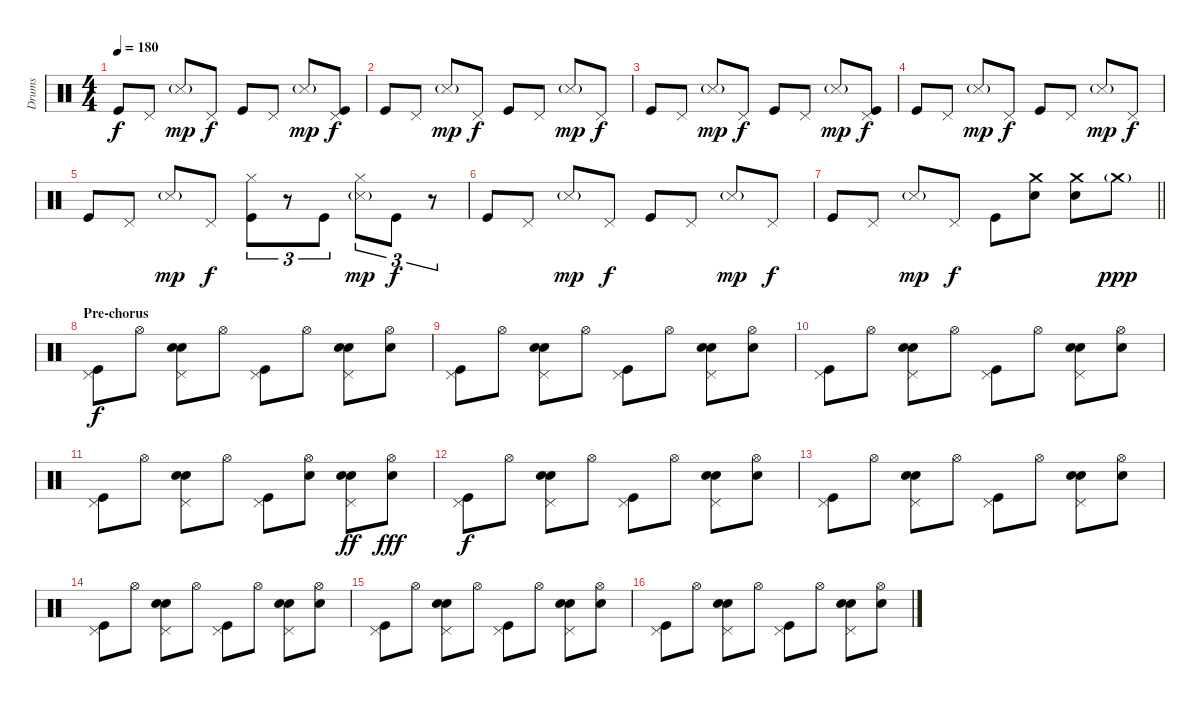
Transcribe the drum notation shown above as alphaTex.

\track ("Drums" "Drums") {instrument percussion}
\staff {score}
\articulation defaults
\ts (4 4)
\tempo 180
\clef neutral
\ks c "Kick (hit)".8{dy f} "Pedal Hi-Hat (hit)".8 "Snare (side stick) 3"{g}.8{dy mp} "Pedal Hi-Hat (hit)".8{dy f} "Kick (hit)".8 "Pedal Hi-Hat (hit)".8 "Snare (side stick) 3"{g}.8{dy mp}
("Pedal Hi-Hat (hit)" "Kick (hit)").8{dy f} |
"Kick (hit)".8 "Pedal Hi-Hat (hit)".8 "Snare (side stick) 3"{g}.8{dy mp} "Pedal Hi-Hat (hit)".8{dy f} "Kick (hit)".8 "Pedal Hi-Hat (hit)".8 "Snare (side stick) 3"{g}.8{dy mp} "Pedal Hi-Hat (hit)".8{dy f} |
"Kick (hit)".8 "Pedal Hi-Hat (hit)".8 "Snare (side stick) 3"{g}.8{dy mp} "Pedal Hi-Hat (hit)".8{dy f} "Kick (hit)".8 "Pedal Hi-Hat (hit)".8 "Snare (side stick) 3"{g}.8{dy mp} ("Pedal Hi-Hat (hit)" "Kick (hit)").8{dy f} |
"Kick (hit)".8 "Pedal Hi-Hat (hit)".8 "Snare (side stick) 3"{g}.8{dy mp} "Pedal Hi-Hat (hit)".8{dy f} "Kick (hit)".8 "Pedal Hi-Hat (hit)".8 "Snare (side stick) 3"{g}.8{dy mp} "Pedal Hi-Hat (hit)".8{dy f} |
"Kick (hit)".8 "Pedal Hi-Hat (hit)".8 "Snare (side stick) 3"{g}.8{dy mp} "Pedal Hi-Hat (hit)".8{dy f} ("Hi-Hat (closed)" "Kick (hit)").8{tu (3 2)} r.8{tu (3 2)} "Kick (hit)".8{tu (3 2)} ("Hi-Hat (closed)" "Snare (side stick) 3"{g}).8{tu (3 2) dy mp} "Kick (hit)".8{tu (3 2) dy f} r.8{tu (3 2)} |
"Kick (hit)".8 "Pedal Hi-Hat (hit)".8 "Snare (side stick) 3"{g}.8{dy mp} "Pedal Hi-Hat (hit)".8{dy f} "Kick (hit)".8 "Pedal Hi-Hat (hit)".8 "Snare (side stick) 3"{g}.8{dy mp} "Pedal Hi-Hat (hit)".8{dy f} |
\barLineRight lightlight "Kick (hit)".8 "Pedal Hi-Hat (hit)".8 "Snare (side stick) 3"{g}.8{dy mp} "Pedal Hi-Hat (hit)".8{dy f} "Kick (hit)".8
("Crash medium (hit)" "Electric Snare (hit)").8 ("Crash medium (hit)" "Electric Snare (hit)").8 "Crash medium (hit)"{g}.8{dy ppp} |
\section ("" "Pre-chorus")
("Pedal Hi-Hat (hit)" "Kick (hit)").8{dy f} "Hi-Hat (open)".8 ("Pedal Hi-Hat (hit)" "Electric Snare (hit)" "Hand Clap (hit)").8 "Hi-Hat (open)".8 ("Pedal Hi-Hat (hit)" "Kick (hit)").8 "Hi-Hat (open)".8 ("Pedal Hi-Hat (hit)" "Electric Snare (hit)" "Hand Clap (hit)").8 ("Hi-Hat (open)" "Hand Clap (hit)").8 |
("Pedal Hi-Hat (hit)" "Kick (hit)").8 "Hi-Hat (open)".8 ("Pedal Hi-Hat (hit)" "Electric Snare (hit)" "Hand Clap (hit)").8 "Hi-Hat (open)".8 ("Pedal Hi-Hat (hit)" "Kick (hit)").8 "Hi-Hat (open)".8 ("Pedal Hi-Hat (hit)" "Electric Snare (hit)" "Hand Clap (hit)").8 ("Hi-Hat (open)" "Hand Clap (hit)").8 |
("Pedal Hi-Hat (hit)" "Kick (hit)").8 "Hi-Hat (open)".8 ("Pedal Hi-Hat (hit)" "Electric Snare (hit)" "Hand Clap (hit)").8 "Hi-Hat (open)".8 ("Pedal Hi-Hat (hit)" "Kick (hit)").8 "Hi-Hat (open)".8 ("Pedal Hi-Hat (hit)" "Electric Snare (hit)" "Hand Clap (hit)").8 ("Hi-Hat (open)" "Hand Clap (hit)").8 |
("Pedal Hi-Hat (hit)" "Kick (hit)").8 "Hi-Hat (open)".8 ("Pedal Hi-Hat (hit)" "Electric Snare (hit)" "Hand Clap (hit)").8 "Hi-Hat (open)".8 ("Pedal Hi-Hat (hit)" "Kick (hit)").8 ("Hi-Hat (open)" "Hand Clap (hit)").8 ("Pedal Hi-Hat (hit)" "Electric Snare (hit)" "Hand Clap (hit)").8{dy ff} ("Hi-Hat (open)" "Hand Clap (hit)").8{dy fff} |
("Pedal Hi-Hat (hit)" "Kick (hit)").8{dy f} "Hi-Hat (open)".8 ("Pedal Hi-Hat (hit)" "Electric Snare (hit)" "Hand Clap (hit)").8 "Hi-Hat (open)".8 ("Pedal Hi-Hat (hit)" "Kick (hit)").8 "Hi-Hat (open)".8 ("Pedal Hi-Hat (hit)" "Electric Snare (hit)" "Hand Clap (hit)").8 ("Hi-Hat (open)" "Hand Clap (hit)").8 |
("Pedal Hi-Hat (hit)" "Kick (hit)").8 "Hi-Hat (open)".8 ("Pedal Hi-Hat (hit)" "Electric Snare (hit)" "Hand Clap (hit)").8 "Hi-Hat (open)".8 ("Pedal Hi-Hat (hit)" "Kick (hit)").8 "Hi-Hat (open)".8 ("Pedal Hi-Hat (hit)" "Electric Snare (hit)" "Hand Clap (hit)").8 ("Hi-Hat (open)" "Hand Clap (hit)").8 |
("Pedal Hi-Hat (hit)" "Kick (hit)").8 "Hi-Hat (open)".8 ("Pedal Hi-Hat (hit)" "Electric Snare (hit)" "Hand Clap (hit)").8 "Hi-Hat (open)".8 ("Pedal Hi-Hat (hit)" "Kick (hit)").8 "Hi-Hat (open)".8 ("Pedal Hi-Hat (hit)" "Electric Snare (hit)" "Hand Clap (hit)").8 ("Hi-Hat (open)" "Hand Clap (hit)").8 |
("Pedal Hi-Hat (hit)" "Kick (hit)").8 "Hi-Hat (open)".8 ("Pedal Hi-Hat (hit)" "Electric Snare (hit)" "Hand Clap (hit)").8 "Hi-Hat (open)".8 ("Pedal Hi-Hat (hit)" "Kick (hit)").8 "Hi-Hat (open)".8 ("Pedal Hi-Hat (hit)" "Electric Snare (hit)" "Hand Clap (hit)").8 ("Hi-Hat (open)" "Hand Clap (hit)").8 |
("Pedal Hi-Hat (hit)" "Kick (hit)").8 "Hi-Hat (open)".8 ("Pedal Hi-Hat (hit)" "Electric Snare (hit)" "Hand Clap (hit)").8 "Hi-Hat (open)".8 ("Pedal Hi-Hat (hit)" "Kick (hit)").8 "Hi-Hat (open)".8 ("Pedal Hi-Hat (hit)" "Electric Snare (hit)" "Hand Clap (hit)").8 ("Hi-Hat (open)" "Hand Clap (hit)").8
